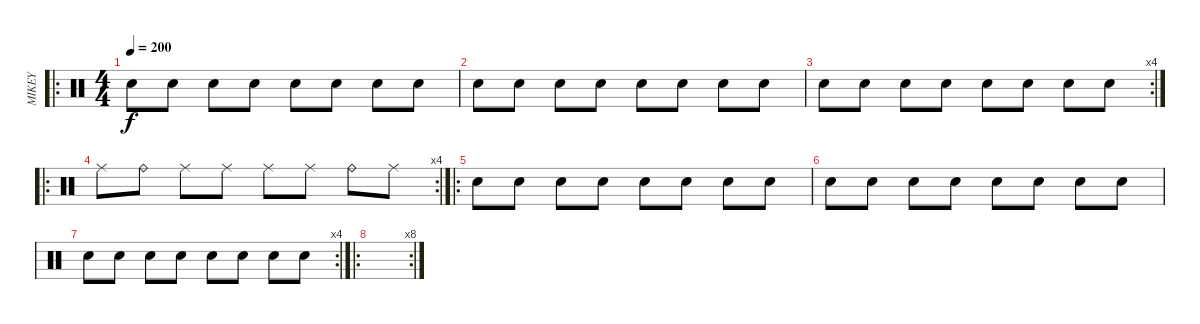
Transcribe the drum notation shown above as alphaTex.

\track ("MIKEY" "MIKEY") {instrument percussion}
\staff {score}
\articulation defaults
\ro
\ts (4 4)
\tempo 200
\clef neutral
\ks c "Electric Snare (hit)".8{dy f} "Electric Snare (hit)".8 "Electric Snare (hit)".8 "Electric Snare (hit)".8 "Electric Snare (hit)".8 "Electric Snare (hit)".8 "Electric Snare (hit)".8 "Electric Snare (hit)".8
|
"Electric Snare (hit)".8 "Electric Snare (hit)".8 "Electric Snare (hit)".8 "Electric Snare (hit)".8 "Electric Snare (hit)".8 "Electric Snare (hit)".8 "Electric Snare (hit)".8 "Electric Snare (hit)".8 |
\rc 4 "Electric Snare (hit)".8 "Electric Snare (hit)".8 "Electric Snare (hit)".8 "Electric Snare (hit)".8 "Electric Snare (hit)".8 "Electric Snare (hit)".8 "Electric Snare (hit)".8 "Electric Snare (hit)".8
|
\ro
\rc 4 "Ride (middle)".8 "Ride (bell)".8 "Ride (middle)".8 "Ride (middle)".8 "Ride (middle)".8 "Ride (middle)".8 "Ride (bell)".8 "Ride (middle)".8
|
\ro "Electric Snare (hit)".8 "Electric Snare (hit)".8 "Electric Snare (hit)".8 "Electric Snare (hit)".8 "Electric Snare (hit)".8 "Electric Snare (hit)".8 "Electric Snare (hit)".8 "Electric Snare (hit)".8
|
"Electric Snare (hit)".8 "Electric Snare (hit)".8 "Electric Snare (hit)".8 "Electric Snare (hit)".8 "Electric Snare (hit)".8 "Electric Snare (hit)".8 "Electric Snare (hit)".8 "Electric Snare (hit)".8 |
\rc 4 "Electric Snare (hit)".8 "Electric Snare (hit)".8 "Electric Snare (hit)".8 "Electric Snare (hit)".8 "Electric Snare (hit)".8 "Electric Snare (hit)".8 "Electric Snare (hit)".8 "Electric Snare (hit)".8
|
\ro
\rc 8
